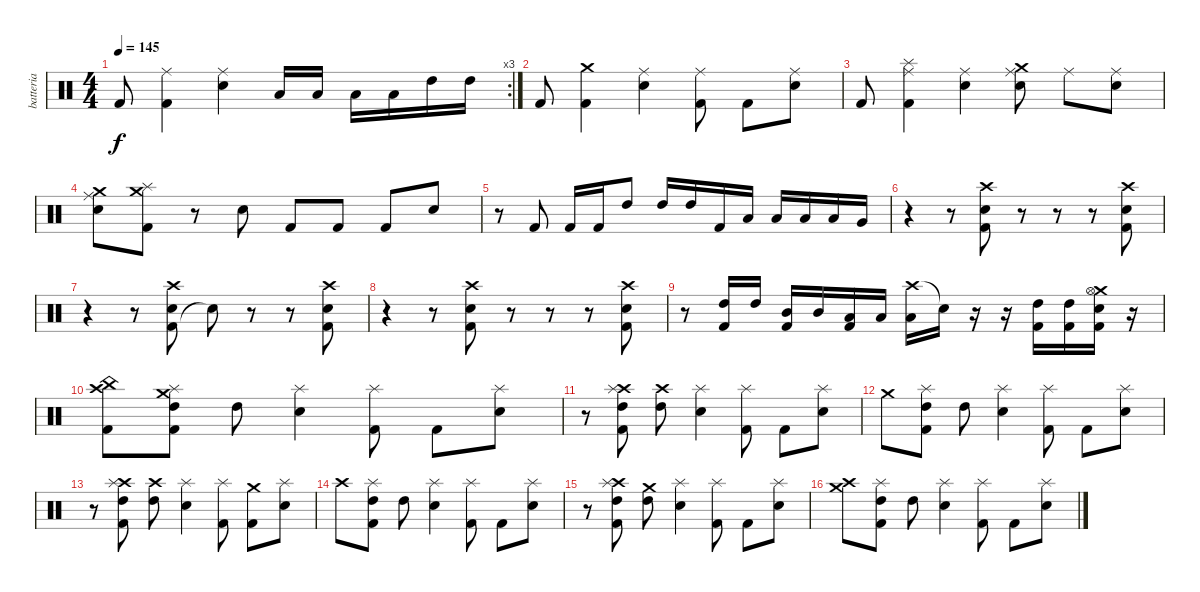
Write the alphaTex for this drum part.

\track ("batteria" "batteria") {instrument percussion}
\staff {score}
\articulation defaults
\rc 3
\ts (4 4)
\tempo 145
\clef neutral
\ks c "Kick (hit) 2".8{dy f}
("Ride (middle)" "Kick (hit) 2").4 ("Ride (middle)" "Electric Snare (hit)").4 "Low Tom (hit)".16 "Low Tom (hit)".16 "Low Tom (hit)".16 "Low Tom (hit)".16 "High Tom (hit)".16 "High Tom (hit)".16 |
"Kick (hit) 2".8 ("Crash medium (hit)" "Kick (hit) 2").4 ("Ride (middle)" "Electric Snare (hit)").4 ("Ride (middle)" "Kick (hit) 2").8 "Kick (hit) 2".8 ("Ride (middle)" "Electric Snare (hit)").8 |
"Kick (hit) 2".8 ("Splash (hit)" "Kick (hit) 2" "Ride (middle)").4 ("Ride (middle)" "Electric Snare (hit)").4 ("Crash medium (hit)" "Ride (middle)" "Electric Snare (hit)").8 "Ride (middle)".8 ("Ride (middle)" "Electric Snare (hit)").8 |
("Crash medium (hit)" "Ride (middle)" "Electric Snare (hit)").8 ("Crash medium (hit)" "Splash (hit)" "Kick (hit) 2").8 r.8 "Electric Snare (hit)".8 "Kick (hit) 2".8 "Kick (hit) 2".8 "Kick (hit) 2".8 "Electric Snare (hit)".8 |
r.8 "Kick (hit) 2".8 "Kick (hit) 2".16 "Kick (hit) 2".16 "High Tom (hit)".8 "High Tom (hit)".16 "High Tom (hit)".16 "Kick (hit) 2".16 "Low Tom (hit)".16 "Low Tom (hit)".16 "Low Tom (hit)".16 "Low Tom (hit)".16 "Very Low Tom (hit)".16 |
r.4 r.8 ("Kick (hit) 2" "Electric Snare (hit)" "Crash high (hit)").8 r.8 r.8 r.8 ("Kick (hit) 2" "Electric Snare (hit)" "Crash high (hit)").8 |
r.4 r.8 ("Kick (hit) 2" "Electric Snare (hit)" "Crash high (hit)").8 "Snare (hit)"{t}.8 r.8 r.8 ("Kick (hit) 2" "Electric Snare (hit)" "Crash high (hit)").8 |
r.4 r.8 ("Kick (hit) 2" "Electric Snare (hit)" "Crash high (hit)").8 r.8 r.8 r.8 ("Kick (hit) 2" "Electric Snare (hit)" "Crash high (hit)").8 |
r.8 ("Kick (hit) 2" "High Tom (hit)").16 "High Tom (hit)".16 ("Kick (hit) 2" "Mid Tom (hit)").16 "Mid Tom (hit)".16 ("Kick (hit) 2" "Low Tom (hit)").16 "Low Tom (hit)".16 ("Crash high (hit)" "Low Floor Tom (hit)").16 "Snare (hit)"{t}.16 r.16 r.16 ("High Tom (hit)" "Kick (hit) 2").16 ("High Tom (hit)" "Kick (hit) 2").16 ("Crash medium (hit)" "Kick (hit) 2" "Hi-Hat (open)" "Electric Snare (hit)").16 r.16 |
("China (hit)" "Crash high (hit)" "Kick (hit) 2").8 ("Crash medium (hit)" "High Tom (hit)" "Splash (hit)" "Kick (hit) 2").8 "High Tom (hit)".8 ("Splash (hit)" "Electric Snare (hit)").4 ("Splash (hit)" "Kick (hit) 2").8 "Kick (hit) 2".8 ("Splash (hit)" "Electric Snare (hit)").8 |
r.8 ("Crash high (hit)" "High Tom (hit)" "Splash (hit)" "Kick (hit) 2").8 ("Crash high (hit)" "High Tom (hit)").8 ("Splash (hit)" "Electric Snare (hit)").4 ("Splash (hit)" "Kick (hit) 2").8 "Kick (hit) 2".8 ("Splash (hit)" "Electric Snare (hit)").8 |
"Crash medium (hit)".8 ("High Tom (hit)" "Splash (hit)" "Kick (hit) 2").8 "High Tom (hit)".8 ("Splash (hit)" "Electric Snare (hit)").4 ("Splash (hit)" "Kick (hit) 2").8 "Kick (hit) 2".8 ("Splash (hit)" "Electric Snare (hit)").8 |
r.8 ("Crash high (hit)" "High Tom (hit)" "Splash (hit)" "Kick (hit) 2").8 ("Crash high (hit)" "High Tom (hit)").8 ("Splash (hit)" "Electric Snare (hit)").4 ("Splash (hit)" "Kick (hit) 2").8 ("Crash medium (hit)" "Kick (hit) 2").8 ("Splash (hit)" "Electric Snare (hit)").8 |
"Crash high (hit)".8 ("High Tom (hit)" "Splash (hit)" "Kick (hit) 2").8 "High Tom (hit)".8 ("Splash (hit)" "Electric Snare (hit)").4 ("Splash (hit)" "Kick (hit) 2").8 "Kick (hit) 2".8 ("Splash (hit)" "Electric Snare (hit)").8 |
r.8 ("Crash high (hit)" "High Tom (hit)" "Splash (hit)" "Kick (hit) 2").8 ("Crash medium (hit)" "High Tom (hit)").8 ("Splash (hit)" "Electric Snare (hit)").4 ("Splash (hit)" "Kick (hit) 2").8 "Kick (hit) 2".8 ("Splash (hit)" "Electric Snare (hit)").8 |
("Crash medium (hit)" "Crash high (hit)").8 ("High Tom (hit)" "Splash (hit)" "Kick (hit) 2").8 "High Tom (hit)".8 ("Splash (hit)" "Electric Snare (hit)").4 ("Splash (hit)" "Kick (hit) 2").8 "Kick (hit) 2".8 ("Splash (hit)" "Electric Snare (hit)").8
